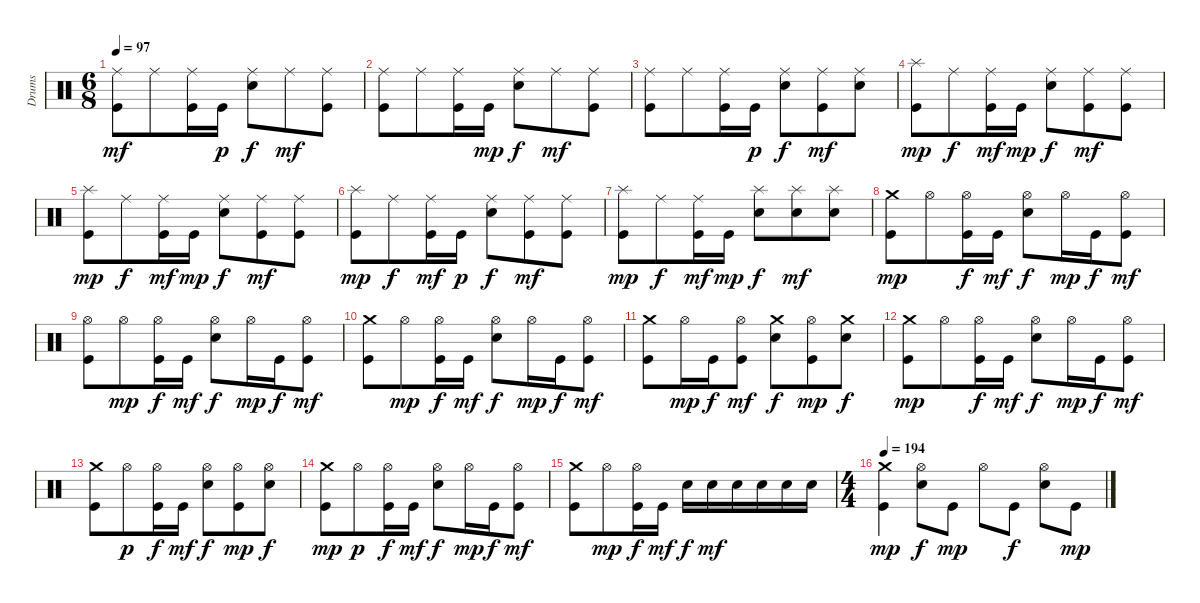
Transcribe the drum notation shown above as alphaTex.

\track ("Drums" "Drums") {instrument percussion}
\staff {score}
\articulation defaults
\ts (6 8)
\tempo 97
\clef neutral
\ks c
("Kick (hit)" "Ride (middle)").8{dy mf} "Ride (middle)".8 ("Kick (hit)" "Ride (middle)").16 "Kick (hit)".16{dy p} ("Snare (hit) 2" "Ride (middle)").8{dy f} "Ride (middle)".8{dy mf} ("Kick (hit)" "Ride (middle)").8 |
("Kick (hit)" "Ride (middle)").8 "Ride (middle)".8 ("Kick (hit)" "Ride (middle)").16 "Kick (hit)".16{dy mp} ("Snare (hit) 2" "Ride (middle)").8{dy f} "Ride (middle)".8{dy mf} ("Kick (hit)" "Ride (middle)").8 |
("Kick (hit)" "Ride (middle)").8 "Ride (middle)".8 ("Kick (hit)" "Ride (middle)").16 "Kick (hit)".16{dy p} ("Snare (hit) 2" "Ride (middle)").8{dy f} ("Kick (hit)" "Ride (middle)").8{dy mf} ("Snare (hit) 2" "Ride (middle)").8 |
("Splash (hit)" "Kick (hit)").8{dy mp} "Ride (middle)".8{dy f} ("Kick (hit)" "Ride (middle)").16{dy mf} "Kick (hit)".16{dy mp} ("Snare (hit) 2" "Ride (middle)").8{dy f} ("Kick (hit)" "Ride (middle)").8{dy mf} ("Kick (hit)" "Ride (middle)").8 |
("Splash (hit)" "Kick (hit)").8{dy mp} "Ride (middle)".8{dy f} ("Kick (hit)" "Ride (middle)").16{dy mf} "Kick (hit)".16{dy mp} ("Snare (hit) 2" "Ride (middle)").8{dy f} ("Kick (hit)" "Ride (middle)").8{dy mf} ("Kick (hit)" "Ride (middle)").8 |
("Splash (hit)" "Kick (hit)").8{dy mp} "Ride (middle)".8{dy f} ("Kick (hit)" "Ride (middle)").16{dy mf} "Kick (hit)".16{dy p} ("Snare (hit) 2" "Ride (middle)").8{dy f} ("Kick (hit)" "Ride (middle)").8{dy mf} ("Kick (hit)" "Ride (middle)").8 |
("Splash (hit)" "Kick (hit)").8{dy mp} "Ride (middle)".8{dy f} ("Kick (hit)" "Ride (middle)").16{dy mf} "Kick (hit)".16{dy mp} ("Splash (hit)" "Snare (hit) 2").8{dy f} ("Splash (hit)" "Snare (hit) 2").8{dy mf} ("Splash (hit)" "Snare (hit) 2").8 |
("Crash medium (hit)" "Kick (hit)").8{dy mp} "Hi-Hat (open)".8 ("Hi-Hat (open)" "Kick (hit)").16{dy f} "Kick (hit)".16{dy mf} ("Hi-Hat (open)" "Snare (hit) 2").8{dy f} "Hi-Hat (open)".16{dy mp} "Kick (hit)".16{dy f} ("Hi-Hat (open)" "Kick (hit)").8{dy mf} |
("Hi-Hat (open)" "Kick (hit)").8 "Hi-Hat (open)".8{dy mp} ("Hi-Hat (open)" "Kick (hit)").16{dy f} "Kick (hit)".16{dy mf} ("Hi-Hat (open)" "Snare (hit) 2").8{dy f} "Hi-Hat (open)".16{dy mp} "Kick (hit)".16{dy f} ("Hi-Hat (open)" "Kick (hit)").8{dy mf} |
("Crash medium (hit)" "Kick (hit)").8 "Hi-Hat (open)".8{dy mp} ("Hi-Hat (open)" "Kick (hit)").16{dy f} "Kick (hit)".16{dy mf} ("Hi-Hat (open)" "Snare (hit) 2").8{dy f} "Hi-Hat (open)".16{dy mp} "Kick (hit)".16{dy f} ("Hi-Hat (open)" "Kick (hit)").8{dy mf} |
("Crash medium (hit)" "Kick (hit)").8 "Hi-Hat (open)".16{dy mp} "Kick (hit)".16{dy f} ("Hi-Hat (open)" "Kick (hit)").8{dy mf} ("Crash medium (hit)" "Snare (hit) 2").8{dy f} ("Hi-Hat (open)" "Kick (hit)").8{dy mp} ("Crash medium (hit)" "Snare (hit) 2").8{dy f} |
("Crash medium (hit)" "Kick (hit)").8{dy mp} "Hi-Hat (open)".8 ("Hi-Hat (open)" "Kick (hit)").16{dy f} "Kick (hit)".16{dy mf} ("Hi-Hat (open)" "Snare (hit) 2").8{dy f} "Hi-Hat (open)".16{dy mp} "Kick (hit)".16{dy f} ("Hi-Hat (open)" "Kick (hit)").8{dy mf} |
("Crash medium (hit)" "Kick (hit)").8 "Hi-Hat (open)".8{dy p} ("Hi-Hat (open)" "Kick (hit)").16{dy f} "Kick (hit)".16{dy mf} ("Hi-Hat (open)" "Snare (hit) 2").8{dy f} ("Hi-Hat (open)" "Kick (hit)").8{dy mp} ("Hi-Hat (open)" "Snare (hit) 2").8{dy f} |
("Crash medium (hit)" "Kick (hit)").8{dy mp} "Hi-Hat (open)".8{dy p} ("Hi-Hat (open)" "Kick (hit)").16{dy f} "Kick (hit)".16{dy mf} ("Hi-Hat (open)" "Snare (hit) 2").8{dy f} "Hi-Hat (open)".16{dy mp} "Kick (hit)".16{dy f} ("Hi-Hat (open)" "Kick (hit)").8{dy mf} |
("Crash medium (hit)" "Kick (hit)").8 "Hi-Hat (open)".8{dy mp} ("Hi-Hat (open)" "Kick (hit)").16{dy f} "Kick (hit)".16{dy mf} "Snare (hit) 2".16{dy f} "Snare (hit) 2".16{dy mf} "Snare (hit) 2".16 "Snare (hit) 2".16 "Snare (hit) 2".16 "Snare (hit) 2".16 |
\ts (4 4)
\tempo 194
("Crash medium (hit)" "Kick (hit)").4{dy mp} ("Hi-Hat (open)" "Snare (hit) 2").8{dy f} "Kick (hit)".8{dy mp} "Hi-Hat (open)".8 "Kick (hit)".8{dy f} ("Hi-Hat (open)" "Snare (hit) 2").8 "Kick (hit)".8{dy mp}
